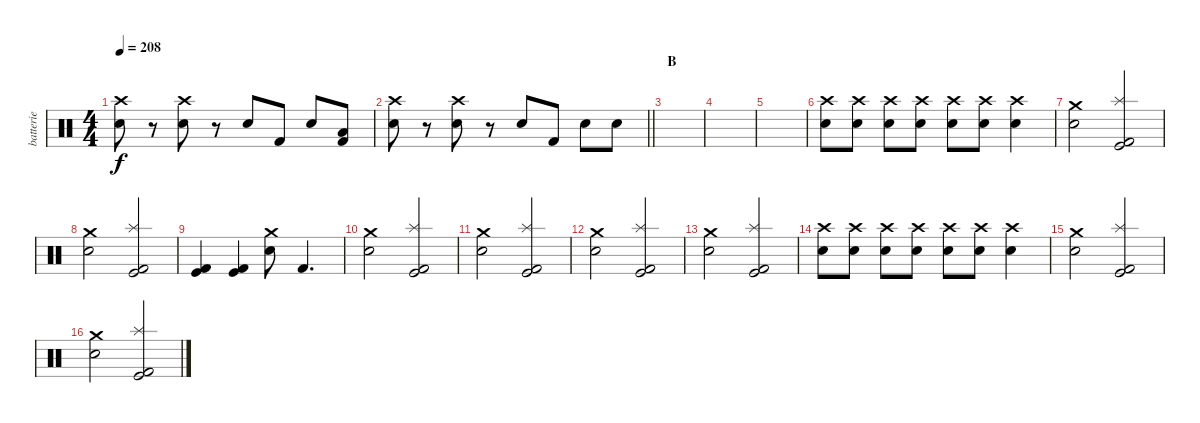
\track ("batterie" "batterie") {instrument percussion}
\staff {score}
\articulation defaults
\ts (4 4)
\tempo 208
\clef neutral
\ks c
("Snare (hit) 2" "Crash high (hit)").8{dy f} r.8 ("Snare (hit) 2" "Crash high (hit)").8 r.8 "Electric Snare (hit)".8 "Kick (hit) 2".8 "Snare (hit)".8 ("Low Floor Tom (hit)" "Kick (hit) 2").8 |
\barLineRight lightlight
("Snare (hit) 2" "Crash high (hit)").8 r.8 ("Snare (hit) 2" "Crash high (hit)").8 r.8 "Electric Snare (hit)".8 "Kick (hit) 2".8 "Snare (hit)".8 "Snare (hit)".8 |
\section ("" "B")
|
|
|
("Snare (hit) 2" "Crash high (hit)").8 ("Snare (hit) 2" "Crash high (hit)").8 ("Snare (hit) 2" "Crash high (hit)").8 ("Snare (hit) 2" "Crash high (hit)").8 ("Snare (hit) 2" "Crash high (hit)").8 ("Snare (hit) 2" "Crash high (hit)").8 ("Snare (hit) 2" "Crash high (hit)").4 |
("Snare (hit) 2" "Crash medium (hit)").2 ("Splash (hit)" "Kick (hit)" "Kick (hit) 2").2 |
("Snare (hit) 2" "Crash medium (hit)").2 ("Splash (hit)" "Kick (hit)" "Kick (hit) 2").2 |
("Kick (hit)" "Kick (hit) 2").4 ("Kick (hit)" "Kick (hit) 2").4 ("Crash medium (hit)" "Snare (hit) 2").8 "Kick (hit) 2".4{d} |
("Snare (hit) 2" "Crash medium (hit)").2 ("Splash (hit)" "Kick (hit)" "Kick (hit) 2").2 |
("Snare (hit) 2" "Crash medium (hit)").2 ("Splash (hit)" "Kick (hit)" "Kick (hit) 2").2 |
("Snare (hit) 2" "Crash medium (hit)").2 ("Splash (hit)" "Kick (hit)" "Kick (hit) 2").2 |
("Snare (hit) 2" "Crash medium (hit)").2 ("Splash (hit)" "Kick (hit)" "Kick (hit) 2").2 |
("Snare (hit) 2" "Crash high (hit)").8 ("Snare (hit) 2" "Crash high (hit)").8 ("Snare (hit) 2" "Crash high (hit)").8 ("Snare (hit) 2" "Crash high (hit)").8 ("Snare (hit) 2" "Crash high (hit)").8 ("Snare (hit) 2" "Crash high (hit)").8 ("Snare (hit) 2" "Crash high (hit)").4 |
("Snare (hit) 2" "Crash medium (hit)").2 ("Splash (hit)" "Kick (hit)" "Kick (hit) 2").2 |
("Snare (hit) 2" "Crash medium (hit)").2 ("Splash (hit)" "Kick (hit)" "Kick (hit) 2").2
